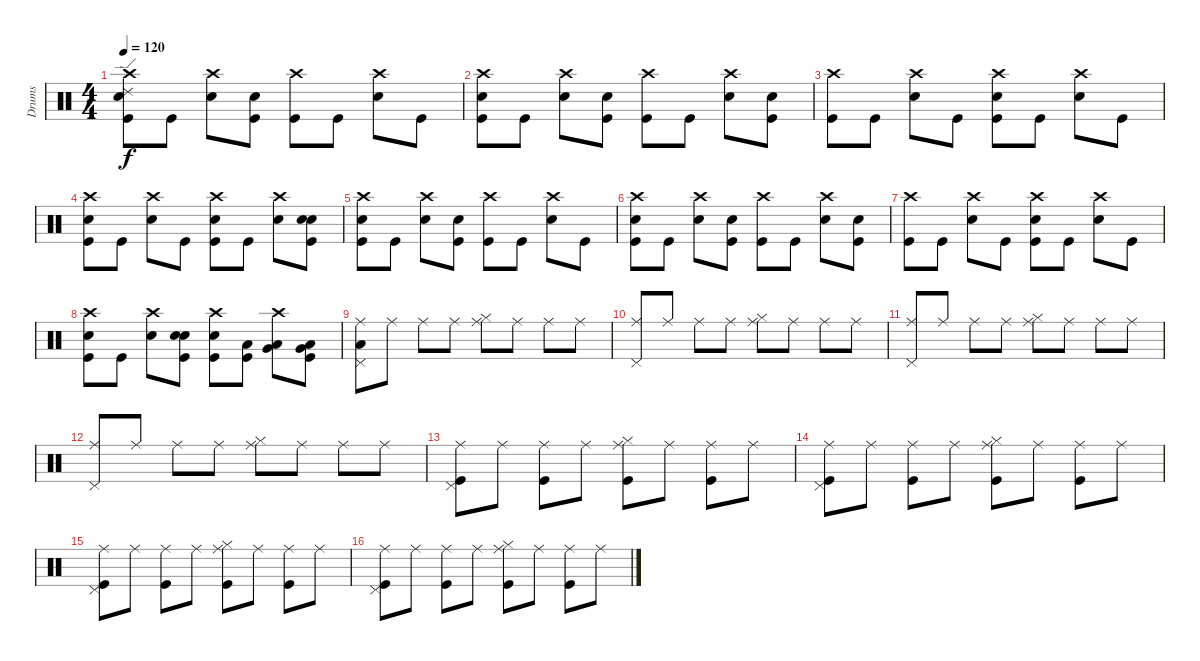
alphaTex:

\track ("Drums" "Drums") {instrument percussion}
\staff {score}
\articulation defaults
\ts (4 4)
\tempo 120
\clef neutral
\ks c
("Electric Snare (hit)" "Ride (edge) 2" "Kick (hit)" "Crash high (hit)").8{dy f} "Kick (hit)".8 ("Electric Snare (hit)" "Crash high (hit)").8 ("Kick (hit)" "Electric Snare (hit)").8 ("Crash high (hit)" "Kick (hit)").8 "Kick (hit)".8 ("Crash high (hit)" "Electric Snare (hit)").8 "Kick (hit)".8 |
("Electric Snare (hit)" "Crash high (hit)" "Kick (hit)").8 "Kick (hit)".8 ("Crash high (hit)" "Electric Snare (hit)").8 ("Kick (hit)" "Electric Snare (hit)").8 ("Crash high (hit)" "Kick (hit)").8 "Kick (hit)".8 ("Crash high (hit)" "Electric Snare (hit)").8 ("Kick (hit)" "Electric Snare (hit)").8 |
("Crash high (hit)" "Kick (hit)").8 "Kick (hit)".8 ("Crash high (hit)" "Electric Snare (hit)").8 "Kick (hit)".8 ("Electric Snare (hit)" "Crash high (hit)" "Kick (hit)").8 "Kick (hit)".8 ("Crash high (hit)" "Electric Snare (hit)").8 "Kick (hit)".8 |
("Electric Snare (hit)" "Crash high (hit)" "Kick (hit)").8 "Kick (hit)".8 ("Crash high (hit)" "Electric Snare (hit)").8 "Kick (hit)".8 ("Electric Snare (hit)" "Crash high (hit)" "Kick (hit)").8 "Kick (hit)".8 ("Crash high (hit)" "Electric Snare (hit)").8 ("Kick (hit)" "Electric Snare (hit)" "Electric Snare (hit)").8 |
("Electric Snare (hit)" "Crash high (hit)" "Kick (hit)").8 "Kick (hit)".8 ("Electric Snare (hit)" "Crash high (hit)").8 ("Kick (hit)" "Electric Snare (hit)").8 ("Crash high (hit)" "Kick (hit)").8 "Kick (hit)".8 ("Crash high (hit)" "Electric Snare (hit)").8 "Kick (hit)".8 |
("Electric Snare (hit)" "Crash high (hit)" "Kick (hit)").8 "Kick (hit)".8 ("Crash high (hit)" "Electric Snare (hit)").8 ("Kick (hit)" "Electric Snare (hit)").8 ("Crash high (hit)" "Kick (hit)").8 "Kick (hit)".8 ("Crash high (hit)" "Electric Snare (hit)").8 ("Kick (hit)" "Electric Snare (hit)").8 |
("Crash high (hit)" "Kick (hit)").8 "Kick (hit)".8 ("Crash high (hit)" "Electric Snare (hit)").8 "Kick (hit)".8 ("Electric Snare (hit)" "Crash high (hit)" "Kick (hit)").8 "Kick (hit)".8 ("Crash high (hit)" "Electric Snare (hit)").8 "Kick (hit)".8 |
("Electric Snare (hit)" "Crash high (hit)" "Kick (hit)").8 "Kick (hit)".8 ("Crash high (hit)" "Electric Snare (hit)").8 ("Kick (hit)" "Electric Snare (hit)" "Electric Snare (hit)").8 ("Electric Snare (hit)" "Crash high (hit)" "Kick (hit)").8 ("Kick (hit)" "Low Tom (hit)").8 ("Low Tom (hit)" "Crash high (hit)" "Very Low Tom (hit)").8 ("Kick (hit)" "Very Low Tom (hit)" "Low Floor Tom (hit)").8 |
("Low Floor Tom (hit)" "Pedal Hi-Hat (hit)" "Ride (middle)").8 "Ride (middle)".8 "Ride (middle)".8 "Ride (middle)".8 ("Ride (middle)" "Hi-Hat (closed)").8 "Ride (middle)".8 "Ride (middle)".8 "Ride (middle)".8 |
("Pedal Hi-Hat (hit)" "Ride (middle)").8 "Ride (middle)".8 "Ride (middle)".8 "Ride (middle)".8 ("Ride (middle)" "Hi-Hat (closed)").8 "Ride (middle)".8 "Ride (middle)".8 "Ride (middle)".8 |
("Pedal Hi-Hat (hit)" "Ride (middle)").8 "Ride (middle)".8 "Ride (middle)".8 "Ride (middle)".8 ("Ride (middle)" "Hi-Hat (closed)").8 "Ride (middle)".8 "Ride (middle)".8 "Ride (middle)".8 |
("Pedal Hi-Hat (hit)" "Ride (middle)").8 "Ride (middle)".8 "Ride (middle)".8 "Ride (middle)".8 ("Ride (middle)" "Hi-Hat (closed)").8 "Ride (middle)".8 "Ride (middle)".8 "Ride (middle)".8 |
("Pedal Hi-Hat (hit)" "Ride (middle)" "Kick (hit)").8 "Ride (middle)".8 ("Ride (middle)" "Kick (hit)").8 "Ride (middle)".8 ("Ride (middle)" "Hi-Hat (closed)" "Kick (hit)").8 "Ride (middle)".8 ("Ride (middle)" "Kick (hit)").8 "Ride (middle)".8 |
("Pedal Hi-Hat (hit)" "Ride (middle)" "Kick (hit)").8 "Ride (middle)".8 ("Ride (middle)" "Kick (hit)").8 "Ride (middle)".8 ("Ride (middle)" "Hi-Hat (closed)" "Kick (hit)").8 "Ride (middle)".8 ("Ride (middle)" "Kick (hit)").8 "Ride (middle)".8 |
("Pedal Hi-Hat (hit)" "Ride (middle)" "Kick (hit)").8 "Ride (middle)".8 ("Ride (middle)" "Kick (hit)").8 "Ride (middle)".8 ("Ride (middle)" "Hi-Hat (closed)" "Kick (hit)").8 "Ride (middle)".8 ("Ride (middle)" "Kick (hit)").8 "Ride (middle)".8 |
("Pedal Hi-Hat (hit)" "Ride (middle)" "Kick (hit)").8 "Ride (middle)".8 ("Ride (middle)" "Kick (hit)").8 "Ride (middle)".8 ("Ride (middle)" "Hi-Hat (closed)" "Kick (hit)").8 "Ride (middle)".8 ("Ride (middle)" "Kick (hit)").8 "Ride (middle)".8
